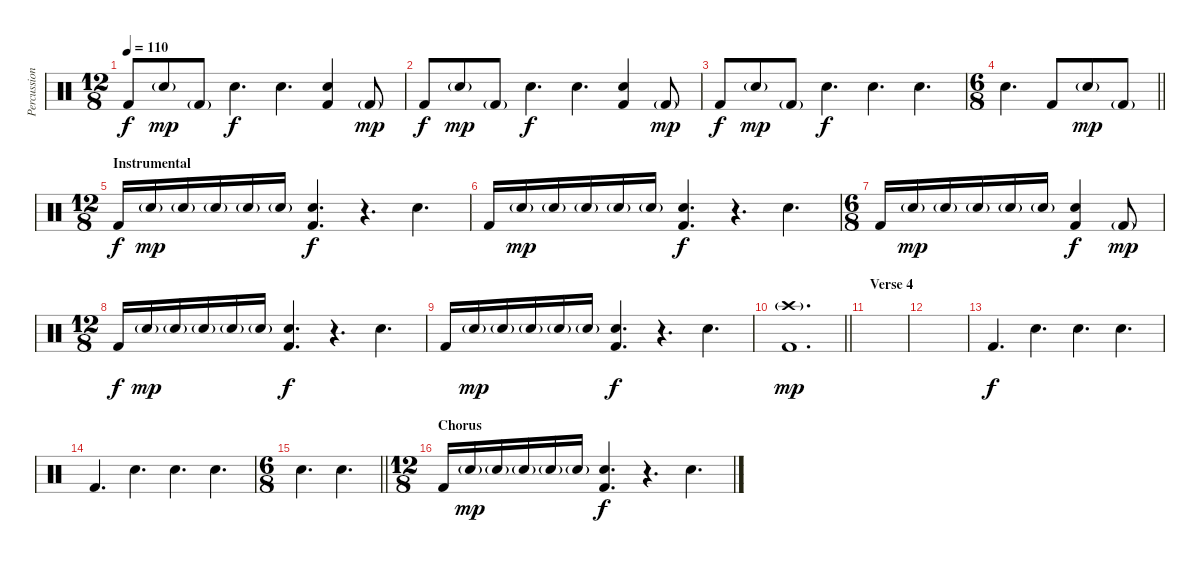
\track ("Percussion" "Percussion") {instrument percussion}
\staff {score}
\articulation defaults
\ts (12 8)
\tempo 110
\clef neutral
\ks c "Kick (hit) 2".8{dy f} "Snare (hit) 2"{g}.8{dy mp} "Kick (hit) 2"{g}.8 "Snare (hit) 2".4{d dy f} "Snare (hit) 2".4{d}
("Snare (hit) 2" "Kick (hit) 2").4 "Kick (hit) 2"{g}.8{dy mp} |
"Kick (hit) 2".8{dy f} "Snare (hit) 2"{g}.8{dy mp} "Kick (hit) 2"{g}.8 "Snare (hit) 2".4{d dy f} "Snare (hit) 2".4{d} ("Snare (hit) 2" "Kick (hit) 2").4 "Kick (hit) 2"{g}.8{dy mp} |
"Kick (hit) 2".8{dy f} "Snare (hit) 2"{g}.8{dy mp} "Kick (hit) 2"{g}.8 "Snare (hit) 2".4{d dy f} "Snare (hit) 2".4{d} "Snare (hit) 2".4{d} |
\ts (6 8)
\barLineRight lightlight "Snare (hit) 2".4{d} "Kick (hit) 2".8 "Snare (hit) 2"{g}.8{dy mp} "Kick (hit) 2"{g}.8
|
\ts (12 8)
\section ("" "Instrumental")
"Kick (hit) 2".16{dy f} "Snare (hit) 2"{g}.16{dy mp} "Snare (hit) 2"{g}.16 "Snare (hit) 2"{g}.16 "Snare (hit) 2"{g}.16 "Snare (hit) 2"{g}.16 ("Snare (hit) 2" "Kick (hit) 2").4{d dy f} r.4{d} "Snare (hit) 2".4{d} |
"Kick (hit) 2".16 "Snare (hit) 2"{g}.16{dy mp} "Snare (hit) 2"{g}.16 "Snare (hit) 2"{g}.16 "Snare (hit) 2"{g}.16 "Snare (hit) 2"{g}.16 ("Snare (hit) 2" "Kick (hit) 2").4{d dy f} r.4{d} "Snare (hit) 2".4{d} |
\ts (6 8)
"Kick (hit) 2".16 "Snare (hit) 2"{g}.16{dy mp} "Snare (hit) 2"{g}.16 "Snare (hit) 2"{g}.16 "Snare (hit) 2"{g}.16 "Snare (hit) 2"{g}.16 ("Snare (hit) 2" "Kick (hit) 2").4{dy f} "Kick (hit) 2"{g}.8{dy mp} |
\ts (12 8)
"Kick (hit) 2".16{dy f} "Snare (hit) 2"{g}.16{dy mp} "Snare (hit) 2"{g}.16 "Snare (hit) 2"{g}.16 "Snare (hit) 2"{g}.16 "Snare (hit) 2"{g}.16 ("Snare (hit) 2" "Kick (hit) 2").4{d dy f} r.4{d} "Snare (hit) 2".4{d} |
"Kick (hit) 2".16 "Snare (hit) 2"{g}.16{dy mp} "Snare (hit) 2"{g}.16 "Snare (hit) 2"{g}.16 "Snare (hit) 2"{g}.16 "Snare (hit) 2"{g}.16 ("Snare (hit) 2" "Kick (hit) 2").4{d dy f} r.4{d} "Snare (hit) 2".4{d} |
\barLineRight lightlight
("Crash high (hit)"{g} "Kick (hit) 2").1{d dy mp} |
\section ("" "Verse 4")
|
|
"Kick (hit) 2".4{d dy f} "Snare (hit) 2".4{d} "Snare (hit) 2".4{d} "Snare (hit) 2".4{d} |
"Kick (hit) 2".4{d} "Snare (hit) 2".4{d} "Snare (hit) 2".4{d} "Snare (hit) 2".4{d} |
\ts (6 8)
\barLineRight lightlight "Snare (hit) 2".4{d} "Snare (hit) 2".4{d}
|
\ts (12 8)
\section ("" "Chorus")
"Kick (hit) 2".16 "Snare (hit) 2"{g}.16{dy mp} "Snare (hit) 2"{g}.16 "Snare (hit) 2"{g}.16 "Snare (hit) 2"{g}.16 "Snare (hit) 2"{g}.16 ("Snare (hit) 2" "Kick (hit) 2").4{d dy f} r.4{d} "Snare (hit) 2".4{d}
